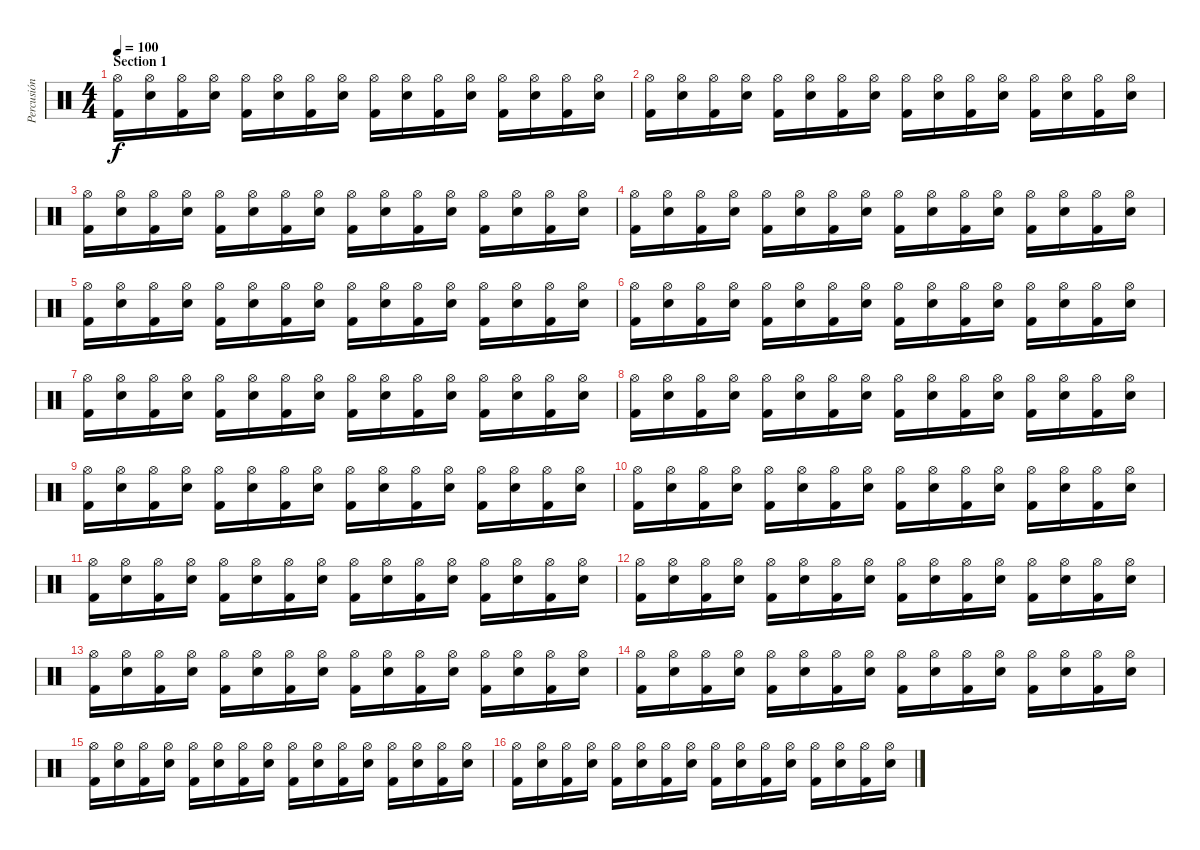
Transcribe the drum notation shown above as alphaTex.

\track ("Percusión" "Percusión") {instrument percussion}
\staff {score}
\articulation defaults
\ts (4 4)
\section ("" "Section 1")
\tempo 100
\clef neutral
\ks c
("Hi-Hat (open)" "Kick (hit) 2").16{dy f} ("Hi-Hat (open)" "Snare (hit) 2").16 ("Hi-Hat (open)" "Kick (hit) 2").16 ("Hi-Hat (open)" "Snare (hit) 2").16 ("Hi-Hat (open)" "Kick (hit) 2").16 ("Hi-Hat (open)" "Snare (hit) 2").16 ("Hi-Hat (open)" "Kick (hit) 2").16 ("Hi-Hat (open)" "Snare (hit) 2").16 ("Hi-Hat (open)" "Kick (hit) 2").16 ("Hi-Hat (open)" "Snare (hit) 2").16 ("Hi-Hat (open)" "Kick (hit) 2").16 ("Hi-Hat (open)" "Snare (hit) 2").16 ("Hi-Hat (open)" "Kick (hit) 2").16 ("Hi-Hat (open)" "Snare (hit) 2").16 ("Hi-Hat (open)" "Kick (hit) 2").16 ("Hi-Hat (open)" "Snare (hit) 2").16 |
("Hi-Hat (open)" "Kick (hit) 2").16 ("Hi-Hat (open)" "Snare (hit) 2").16 ("Hi-Hat (open)" "Kick (hit) 2").16 ("Hi-Hat (open)" "Snare (hit) 2").16 ("Hi-Hat (open)" "Kick (hit) 2").16 ("Hi-Hat (open)" "Snare (hit) 2").16 ("Hi-Hat (open)" "Kick (hit) 2").16 ("Hi-Hat (open)" "Snare (hit) 2").16 ("Hi-Hat (open)" "Kick (hit) 2").16 ("Hi-Hat (open)" "Snare (hit) 2").16 ("Hi-Hat (open)" "Kick (hit) 2").16 ("Hi-Hat (open)" "Snare (hit) 2").16 ("Hi-Hat (open)" "Kick (hit) 2").16 ("Hi-Hat (open)" "Snare (hit) 2").16 ("Hi-Hat (open)" "Kick (hit) 2").16 ("Hi-Hat (open)" "Snare (hit) 2").16 |
("Hi-Hat (open)" "Kick (hit) 2").16 ("Hi-Hat (open)" "Snare (hit) 2").16 ("Hi-Hat (open)" "Kick (hit) 2").16 ("Hi-Hat (open)" "Snare (hit) 2").16 ("Hi-Hat (open)" "Kick (hit) 2").16 ("Hi-Hat (open)" "Snare (hit) 2").16 ("Hi-Hat (open)" "Kick (hit) 2").16 ("Hi-Hat (open)" "Snare (hit) 2").16 ("Hi-Hat (open)" "Kick (hit) 2").16 ("Hi-Hat (open)" "Snare (hit) 2").16 ("Hi-Hat (open)" "Kick (hit) 2").16 ("Hi-Hat (open)" "Snare (hit) 2").16 ("Hi-Hat (open)" "Kick (hit) 2").16 ("Hi-Hat (open)" "Snare (hit) 2").16 ("Hi-Hat (open)" "Kick (hit) 2").16 ("Hi-Hat (open)" "Snare (hit) 2").16 |
("Hi-Hat (open)" "Kick (hit) 2").16 ("Hi-Hat (open)" "Snare (hit) 2").16 ("Hi-Hat (open)" "Kick (hit) 2").16 ("Hi-Hat (open)" "Snare (hit) 2").16 ("Hi-Hat (open)" "Kick (hit) 2").16 ("Hi-Hat (open)" "Snare (hit) 2").16 ("Hi-Hat (open)" "Kick (hit) 2").16 ("Hi-Hat (open)" "Snare (hit) 2").16 ("Hi-Hat (open)" "Kick (hit) 2").16 ("Hi-Hat (open)" "Snare (hit) 2").16 ("Hi-Hat (open)" "Kick (hit) 2").16 ("Hi-Hat (open)" "Snare (hit) 2").16 ("Hi-Hat (open)" "Kick (hit) 2").16 ("Hi-Hat (open)" "Snare (hit) 2").16 ("Hi-Hat (open)" "Kick (hit) 2").16 ("Hi-Hat (open)" "Snare (hit) 2").16 |
("Hi-Hat (open)" "Kick (hit) 2").16 ("Hi-Hat (open)" "Snare (hit) 2").16 ("Hi-Hat (open)" "Kick (hit) 2").16 ("Hi-Hat (open)" "Snare (hit) 2").16 ("Hi-Hat (open)" "Kick (hit) 2").16 ("Hi-Hat (open)" "Snare (hit) 2").16 ("Hi-Hat (open)" "Kick (hit) 2").16 ("Hi-Hat (open)" "Snare (hit) 2").16 ("Hi-Hat (open)" "Kick (hit) 2").16 ("Hi-Hat (open)" "Snare (hit) 2").16 ("Hi-Hat (open)" "Kick (hit) 2").16 ("Hi-Hat (open)" "Snare (hit) 2").16 ("Hi-Hat (open)" "Kick (hit) 2").16 ("Hi-Hat (open)" "Snare (hit) 2").16 ("Hi-Hat (open)" "Kick (hit) 2").16 ("Hi-Hat (open)" "Snare (hit) 2").16 |
("Hi-Hat (open)" "Kick (hit) 2").16 ("Hi-Hat (open)" "Snare (hit) 2").16 ("Hi-Hat (open)" "Kick (hit) 2").16 ("Hi-Hat (open)" "Snare (hit) 2").16 ("Hi-Hat (open)" "Kick (hit) 2").16 ("Hi-Hat (open)" "Snare (hit) 2").16 ("Hi-Hat (open)" "Kick (hit) 2").16 ("Hi-Hat (open)" "Snare (hit) 2").16 ("Hi-Hat (open)" "Kick (hit) 2").16 ("Hi-Hat (open)" "Snare (hit) 2").16 ("Hi-Hat (open)" "Kick (hit) 2").16 ("Hi-Hat (open)" "Snare (hit) 2").16 ("Hi-Hat (open)" "Kick (hit) 2").16 ("Hi-Hat (open)" "Snare (hit) 2").16 ("Hi-Hat (open)" "Kick (hit) 2").16 ("Hi-Hat (open)" "Snare (hit) 2").16 |
("Hi-Hat (open)" "Kick (hit) 2").16 ("Hi-Hat (open)" "Snare (hit) 2").16 ("Hi-Hat (open)" "Kick (hit) 2").16 ("Hi-Hat (open)" "Snare (hit) 2").16 ("Hi-Hat (open)" "Kick (hit) 2").16 ("Hi-Hat (open)" "Snare (hit) 2").16 ("Hi-Hat (open)" "Kick (hit) 2").16 ("Hi-Hat (open)" "Snare (hit) 2").16 ("Hi-Hat (open)" "Kick (hit) 2").16 ("Hi-Hat (open)" "Snare (hit) 2").16 ("Hi-Hat (open)" "Kick (hit) 2").16 ("Hi-Hat (open)" "Snare (hit) 2").16 ("Hi-Hat (open)" "Kick (hit) 2").16 ("Hi-Hat (open)" "Snare (hit) 2").16 ("Hi-Hat (open)" "Kick (hit) 2").16 ("Hi-Hat (open)" "Snare (hit) 2").16 |
("Hi-Hat (open)" "Kick (hit) 2").16 ("Hi-Hat (open)" "Snare (hit) 2").16 ("Hi-Hat (open)" "Kick (hit) 2").16 ("Hi-Hat (open)" "Snare (hit) 2").16 ("Hi-Hat (open)" "Kick (hit) 2").16 ("Hi-Hat (open)" "Snare (hit) 2").16 ("Hi-Hat (open)" "Kick (hit) 2").16 ("Hi-Hat (open)" "Snare (hit) 2").16 ("Hi-Hat (open)" "Kick (hit) 2").16 ("Hi-Hat (open)" "Snare (hit) 2").16 ("Hi-Hat (open)" "Kick (hit) 2").16 ("Hi-Hat (open)" "Snare (hit) 2").16 ("Hi-Hat (open)" "Kick (hit) 2").16 ("Hi-Hat (open)" "Snare (hit) 2").16 ("Hi-Hat (open)" "Kick (hit) 2").16 ("Hi-Hat (open)" "Snare (hit) 2").16 |
("Hi-Hat (open)" "Kick (hit) 2").16 ("Hi-Hat (open)" "Snare (hit) 2").16 ("Hi-Hat (open)" "Kick (hit) 2").16 ("Hi-Hat (open)" "Snare (hit) 2").16 ("Hi-Hat (open)" "Kick (hit) 2").16 ("Hi-Hat (open)" "Snare (hit) 2").16 ("Hi-Hat (open)" "Kick (hit) 2").16 ("Hi-Hat (open)" "Snare (hit) 2").16 ("Hi-Hat (open)" "Kick (hit) 2").16 ("Hi-Hat (open)" "Snare (hit) 2").16 ("Hi-Hat (open)" "Kick (hit) 2").16 ("Hi-Hat (open)" "Snare (hit) 2").16 ("Hi-Hat (open)" "Kick (hit) 2").16 ("Hi-Hat (open)" "Snare (hit) 2").16 ("Hi-Hat (open)" "Kick (hit) 2").16 ("Hi-Hat (open)" "Snare (hit) 2").16 |
("Hi-Hat (open)" "Kick (hit) 2").16 ("Hi-Hat (open)" "Snare (hit) 2").16 ("Hi-Hat (open)" "Kick (hit) 2").16 ("Hi-Hat (open)" "Snare (hit) 2").16 ("Hi-Hat (open)" "Kick (hit) 2").16 ("Hi-Hat (open)" "Snare (hit) 2").16 ("Hi-Hat (open)" "Kick (hit) 2").16 ("Hi-Hat (open)" "Snare (hit) 2").16 ("Hi-Hat (open)" "Kick (hit) 2").16 ("Hi-Hat (open)" "Snare (hit) 2").16 ("Hi-Hat (open)" "Kick (hit) 2").16 ("Hi-Hat (open)" "Snare (hit) 2").16 ("Hi-Hat (open)" "Kick (hit) 2").16 ("Hi-Hat (open)" "Snare (hit) 2").16 ("Hi-Hat (open)" "Kick (hit) 2").16 ("Hi-Hat (open)" "Snare (hit) 2").16 |
("Hi-Hat (open)" "Kick (hit) 2").16 ("Hi-Hat (open)" "Snare (hit) 2").16 ("Hi-Hat (open)" "Kick (hit) 2").16 ("Hi-Hat (open)" "Snare (hit) 2").16 ("Hi-Hat (open)" "Kick (hit) 2").16 ("Hi-Hat (open)" "Snare (hit) 2").16 ("Hi-Hat (open)" "Kick (hit) 2").16 ("Hi-Hat (open)" "Snare (hit) 2").16 ("Hi-Hat (open)" "Kick (hit) 2").16 ("Hi-Hat (open)" "Snare (hit) 2").16 ("Hi-Hat (open)" "Kick (hit) 2").16 ("Hi-Hat (open)" "Snare (hit) 2").16 ("Hi-Hat (open)" "Kick (hit) 2").16 ("Hi-Hat (open)" "Snare (hit) 2").16 ("Hi-Hat (open)" "Kick (hit) 2").16 ("Hi-Hat (open)" "Snare (hit) 2").16 |
("Hi-Hat (open)" "Kick (hit) 2").16 ("Hi-Hat (open)" "Snare (hit) 2").16 ("Hi-Hat (open)" "Kick (hit) 2").16 ("Hi-Hat (open)" "Snare (hit) 2").16 ("Hi-Hat (open)" "Kick (hit) 2").16 ("Hi-Hat (open)" "Snare (hit) 2").16 ("Hi-Hat (open)" "Kick (hit) 2").16 ("Hi-Hat (open)" "Snare (hit) 2").16 ("Hi-Hat (open)" "Kick (hit) 2").16 ("Hi-Hat (open)" "Snare (hit) 2").16 ("Hi-Hat (open)" "Kick (hit) 2").16 ("Hi-Hat (open)" "Snare (hit) 2").16 ("Hi-Hat (open)" "Kick (hit) 2").16 ("Hi-Hat (open)" "Snare (hit) 2").16 ("Hi-Hat (open)" "Kick (hit) 2").16 ("Hi-Hat (open)" "Snare (hit) 2").16 |
("Hi-Hat (open)" "Kick (hit) 2").16 ("Hi-Hat (open)" "Snare (hit) 2").16 ("Hi-Hat (open)" "Kick (hit) 2").16 ("Hi-Hat (open)" "Snare (hit) 2").16 ("Hi-Hat (open)" "Kick (hit) 2").16 ("Hi-Hat (open)" "Snare (hit) 2").16 ("Hi-Hat (open)" "Kick (hit) 2").16 ("Hi-Hat (open)" "Snare (hit) 2").16 ("Hi-Hat (open)" "Kick (hit) 2").16 ("Hi-Hat (open)" "Snare (hit) 2").16 ("Hi-Hat (open)" "Kick (hit) 2").16 ("Hi-Hat (open)" "Snare (hit) 2").16 ("Hi-Hat (open)" "Kick (hit) 2").16 ("Hi-Hat (open)" "Snare (hit) 2").16 ("Hi-Hat (open)" "Kick (hit) 2").16 ("Hi-Hat (open)" "Snare (hit) 2").16 |
("Hi-Hat (open)" "Kick (hit) 2").16 ("Hi-Hat (open)" "Snare (hit) 2").16 ("Hi-Hat (open)" "Kick (hit) 2").16 ("Hi-Hat (open)" "Snare (hit) 2").16 ("Hi-Hat (open)" "Kick (hit) 2").16 ("Hi-Hat (open)" "Snare (hit) 2").16 ("Hi-Hat (open)" "Kick (hit) 2").16 ("Hi-Hat (open)" "Snare (hit) 2").16 ("Hi-Hat (open)" "Kick (hit) 2").16 ("Hi-Hat (open)" "Snare (hit) 2").16 ("Hi-Hat (open)" "Kick (hit) 2").16 ("Hi-Hat (open)" "Snare (hit) 2").16 ("Hi-Hat (open)" "Kick (hit) 2").16 ("Hi-Hat (open)" "Snare (hit) 2").16 ("Hi-Hat (open)" "Kick (hit) 2").16 ("Hi-Hat (open)" "Snare (hit) 2").16 |
("Hi-Hat (open)" "Kick (hit) 2").16 ("Hi-Hat (open)" "Snare (hit) 2").16 ("Hi-Hat (open)" "Kick (hit) 2").16 ("Hi-Hat (open)" "Snare (hit) 2").16 ("Hi-Hat (open)" "Kick (hit) 2").16 ("Hi-Hat (open)" "Snare (hit) 2").16 ("Hi-Hat (open)" "Kick (hit) 2").16 ("Hi-Hat (open)" "Snare (hit) 2").16 ("Hi-Hat (open)" "Kick (hit) 2").16 ("Hi-Hat (open)" "Snare (hit) 2").16 ("Hi-Hat (open)" "Kick (hit) 2").16 ("Hi-Hat (open)" "Snare (hit) 2").16 ("Hi-Hat (open)" "Kick (hit) 2").16 ("Hi-Hat (open)" "Snare (hit) 2").16 ("Hi-Hat (open)" "Kick (hit) 2").16 ("Hi-Hat (open)" "Snare (hit) 2").16 |
("Hi-Hat (open)" "Kick (hit) 2").16 ("Hi-Hat (open)" "Snare (hit) 2").16 ("Hi-Hat (open)" "Kick (hit) 2").16 ("Hi-Hat (open)" "Snare (hit) 2").16 ("Hi-Hat (open)" "Kick (hit) 2").16 ("Hi-Hat (open)" "Snare (hit) 2").16 ("Hi-Hat (open)" "Kick (hit) 2").16 ("Hi-Hat (open)" "Snare (hit) 2").16 ("Hi-Hat (open)" "Kick (hit) 2").16 ("Hi-Hat (open)" "Snare (hit) 2").16 ("Hi-Hat (open)" "Kick (hit) 2").16 ("Hi-Hat (open)" "Snare (hit) 2").16 ("Hi-Hat (open)" "Kick (hit) 2").16 ("Hi-Hat (open)" "Snare (hit) 2").16 ("Hi-Hat (open)" "Kick (hit) 2").16 ("Hi-Hat (open)" "Snare (hit) 2").16
